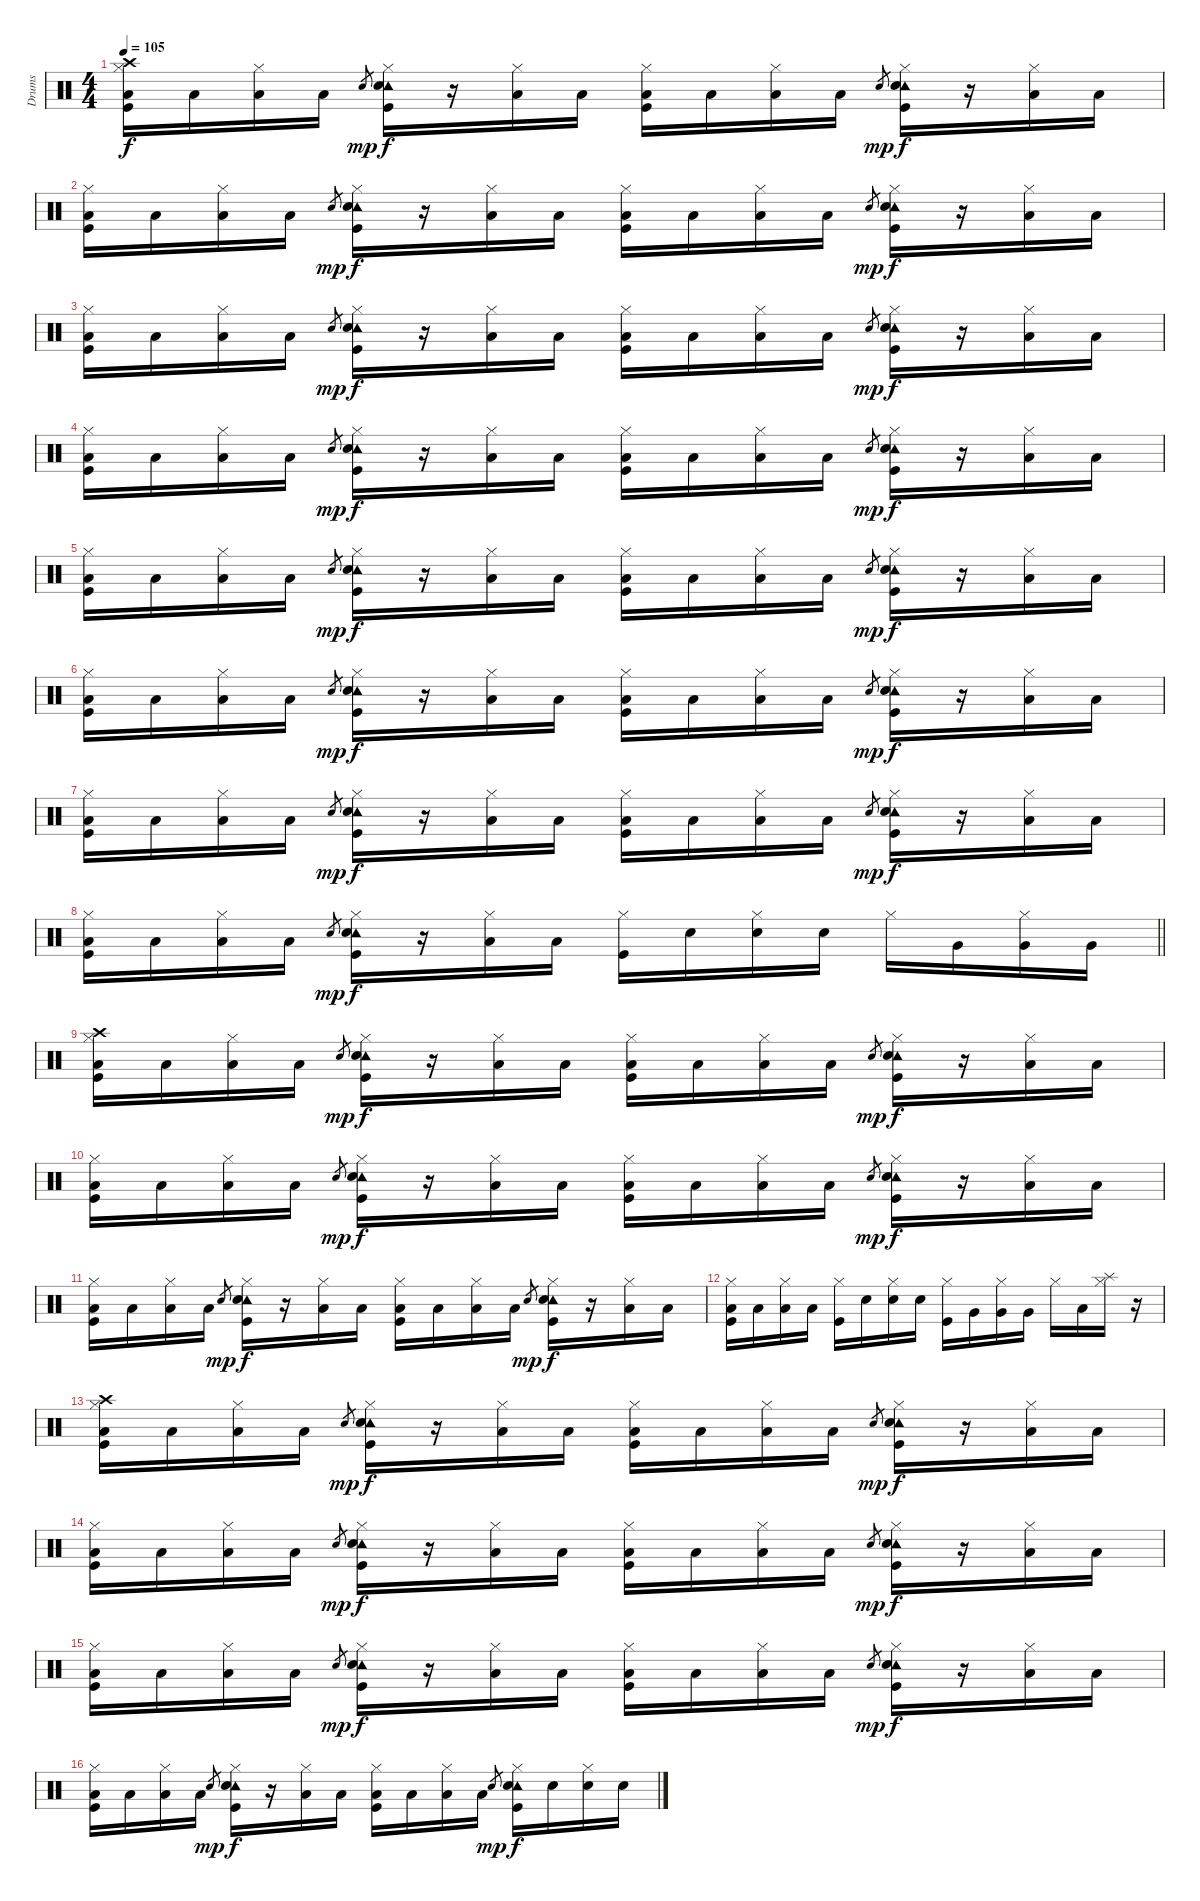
\track ("Drums" "Drums") {instrument percussion}
\staff {score}
\articulation defaults
\ts (4 4)
\tempo 105
\clef neutral
\ks c
("Crash high (hit)" "Hi-Hat (closed)" "Low Floor Tom (hit)" "Kick (hit)").16{dy f} "Low Floor Tom (hit)".16 ("Hi-Hat (closed)" "Low Floor Tom (hit)").16 "Low Floor Tom (hit)".16 "Snare (hit) 2".8{gr dy mp} ("Tambourine (hit)" "Hi-Hat (closed)" "Snare (hit) 2" "Kick (hit)").16{dy f} r.16 ("Hi-Hat (closed)" "Low Floor Tom (hit)").16 "Low Floor Tom (hit)".16 ("Hi-Hat (closed)" "Low Floor Tom (hit)" "Kick (hit)").16 "Low Floor Tom (hit)".16 ("Hi-Hat (closed)" "Low Floor Tom (hit)").16 "Low Floor Tom (hit)".16 "Snare (hit) 2".8{gr dy mp} ("Tambourine (hit)" "Hi-Hat (closed)" "Snare (hit) 2" "Kick (hit)").16{dy f} r.16 ("Hi-Hat (closed)" "Low Floor Tom (hit)").16 "Low Floor Tom (hit)".16 |
("Hi-Hat (closed)" "Low Floor Tom (hit)" "Kick (hit)").16 "Low Floor Tom (hit)".16 ("Hi-Hat (closed)" "Low Floor Tom (hit)").16 "Low Floor Tom (hit)".16 "Snare (hit) 2".8{gr dy mp} ("Tambourine (hit)" "Hi-Hat (closed)" "Snare (hit) 2" "Kick (hit)").16{dy f} r.16 ("Hi-Hat (closed)" "Low Floor Tom (hit)").16 "Low Floor Tom (hit)".16 ("Hi-Hat (closed)" "Low Floor Tom (hit)" "Kick (hit)").16 "Low Floor Tom (hit)".16 ("Hi-Hat (closed)" "Low Floor Tom (hit)").16 "Low Floor Tom (hit)".16 "Snare (hit) 2".8{gr dy mp} ("Tambourine (hit)" "Hi-Hat (closed)" "Snare (hit) 2" "Kick (hit)").16{dy f} r.16 ("Hi-Hat (closed)" "Low Floor Tom (hit)").16 "Low Floor Tom (hit)".16 |
("Hi-Hat (closed)" "Low Floor Tom (hit)" "Kick (hit)").16 "Low Floor Tom (hit)".16 ("Hi-Hat (closed)" "Low Floor Tom (hit)").16 "Low Floor Tom (hit)".16 "Snare (hit) 2".8{gr dy mp} ("Tambourine (hit)" "Hi-Hat (closed)" "Snare (hit) 2" "Kick (hit)").16{dy f} r.16 ("Hi-Hat (closed)" "Low Floor Tom (hit)").16 "Low Floor Tom (hit)".16 ("Hi-Hat (closed)" "Low Floor Tom (hit)" "Kick (hit)").16 "Low Floor Tom (hit)".16 ("Hi-Hat (closed)" "Low Floor Tom (hit)").16 "Low Floor Tom (hit)".16 "Snare (hit) 2".8{gr dy mp} ("Tambourine (hit)" "Hi-Hat (closed)" "Snare (hit) 2" "Kick (hit)").16{dy f} r.16 ("Hi-Hat (closed)" "Low Floor Tom (hit)").16 "Low Floor Tom (hit)".16 |
("Hi-Hat (closed)" "Low Floor Tom (hit)" "Kick (hit)").16 "Low Floor Tom (hit)".16 ("Hi-Hat (closed)" "Low Floor Tom (hit)").16 "Low Floor Tom (hit)".16 "Snare (hit) 2".8{gr dy mp} ("Tambourine (hit)" "Hi-Hat (closed)" "Snare (hit) 2" "Kick (hit)").16{dy f} r.16 ("Hi-Hat (closed)" "Low Floor Tom (hit)").16 "Low Floor Tom (hit)".16 ("Hi-Hat (closed)" "Low Floor Tom (hit)" "Kick (hit)").16 "Low Floor Tom (hit)".16 ("Hi-Hat (closed)" "Low Floor Tom (hit)").16 "Low Floor Tom (hit)".16 "Snare (hit) 2".8{gr dy mp} ("Tambourine (hit)" "Hi-Hat (closed)" "Snare (hit) 2" "Kick (hit)").16{dy f} r.16 ("Hi-Hat (closed)" "Low Floor Tom (hit)").16 "Low Floor Tom (hit)".16 |
("Hi-Hat (closed)" "Low Floor Tom (hit)" "Kick (hit)").16 "Low Floor Tom (hit)".16 ("Hi-Hat (closed)" "Low Floor Tom (hit)").16 "Low Floor Tom (hit)".16 "Snare (hit) 2".8{gr dy mp} ("Tambourine (hit)" "Hi-Hat (closed)" "Snare (hit) 2" "Kick (hit)").16{dy f} r.16 ("Hi-Hat (closed)" "Low Floor Tom (hit)").16 "Low Floor Tom (hit)".16 ("Hi-Hat (closed)" "Low Floor Tom (hit)" "Kick (hit)").16 "Low Floor Tom (hit)".16 ("Hi-Hat (closed)" "Low Floor Tom (hit)").16 "Low Floor Tom (hit)".16 "Snare (hit) 2".8{gr dy mp} ("Tambourine (hit)" "Hi-Hat (closed)" "Snare (hit) 2" "Kick (hit)").16{dy f} r.16 ("Hi-Hat (closed)" "Low Floor Tom (hit)").16 "Low Floor Tom (hit)".16 |
("Hi-Hat (closed)" "Low Floor Tom (hit)" "Kick (hit)").16 "Low Floor Tom (hit)".16 ("Hi-Hat (closed)" "Low Floor Tom (hit)").16 "Low Floor Tom (hit)".16 "Snare (hit) 2".8{gr dy mp} ("Tambourine (hit)" "Hi-Hat (closed)" "Snare (hit) 2" "Kick (hit)").16{dy f} r.16 ("Hi-Hat (closed)" "Low Floor Tom (hit)").16 "Low Floor Tom (hit)".16 ("Hi-Hat (closed)" "Low Floor Tom (hit)" "Kick (hit)").16 "Low Floor Tom (hit)".16 ("Hi-Hat (closed)" "Low Floor Tom (hit)").16 "Low Floor Tom (hit)".16 "Snare (hit) 2".8{gr dy mp} ("Tambourine (hit)" "Hi-Hat (closed)" "Snare (hit) 2" "Kick (hit)").16{dy f} r.16 ("Hi-Hat (closed)" "Low Floor Tom (hit)").16 "Low Floor Tom (hit)".16 |
("Hi-Hat (closed)" "Low Floor Tom (hit)" "Kick (hit)").16 "Low Floor Tom (hit)".16 ("Hi-Hat (closed)" "Low Floor Tom (hit)").16 "Low Floor Tom (hit)".16 "Snare (hit) 2".8{gr dy mp} ("Tambourine (hit)" "Hi-Hat (closed)" "Snare (hit) 2" "Kick (hit)").16{dy f} r.16 ("Hi-Hat (closed)" "Low Floor Tom (hit)").16 "Low Floor Tom (hit)".16 ("Hi-Hat (closed)" "Low Floor Tom (hit)" "Kick (hit)").16 "Low Floor Tom (hit)".16 ("Hi-Hat (closed)" "Low Floor Tom (hit)").16 "Low Floor Tom (hit)".16 "Snare (hit) 2".8{gr dy mp} ("Tambourine (hit)" "Hi-Hat (closed)" "Snare (hit) 2" "Kick (hit)").16{dy f} r.16 ("Hi-Hat (closed)" "Low Floor Tom (hit)").16 "Low Floor Tom (hit)".16 |
\barLineRight lightlight
("Hi-Hat (closed)" "Low Floor Tom (hit)" "Kick (hit)").16 "Low Floor Tom (hit)".16 ("Hi-Hat (closed)" "Low Floor Tom (hit)").16 "Low Floor Tom (hit)".16 "Snare (hit) 2".8{gr dy mp} ("Tambourine (hit)" "Hi-Hat (closed)" "Snare (hit) 2" "Kick (hit)").16{dy f} r.16 ("Hi-Hat (closed)" "Low Floor Tom (hit)").16 "Low Floor Tom (hit)".16 ("Hi-Hat (closed)" "Kick (hit)").16 "Snare (hit) 2".16 ("Hi-Hat (closed)" "Snare (hit) 2").16 "Snare (hit) 2".16 "Hi-Hat (closed)".16 "Very Low Tom (hit)".16 ("Hi-Hat (closed)" "Very Low Tom (hit)").16 "Very Low Tom (hit)".16 |
("Crash high (hit)" "Hi-Hat (closed)" "Low Floor Tom (hit)" "Kick (hit)").16 "Low Floor Tom (hit)".16 ("Hi-Hat (closed)" "Low Floor Tom (hit)").16 "Low Floor Tom (hit)".16 "Snare (hit) 2".8{gr dy mp} ("Tambourine (hit)" "Hi-Hat (closed)" "Snare (hit) 2" "Kick (hit)").16{dy f} r.16 ("Hi-Hat (closed)" "Low Floor Tom (hit)").16 "Low Floor Tom (hit)".16 ("Hi-Hat (closed)" "Low Floor Tom (hit)" "Kick (hit)").16 "Low Floor Tom (hit)".16 ("Hi-Hat (closed)" "Low Floor Tom (hit)").16 "Low Floor Tom (hit)".16 "Snare (hit) 2".8{gr dy mp} ("Tambourine (hit)" "Hi-Hat (closed)" "Snare (hit) 2" "Kick (hit)").16{dy f} r.16 ("Hi-Hat (closed)" "Low Floor Tom (hit)").16 "Low Floor Tom (hit)".16 |
("Hi-Hat (closed)" "Low Floor Tom (hit)" "Kick (hit)").16 "Low Floor Tom (hit)".16 ("Hi-Hat (closed)" "Low Floor Tom (hit)").16 "Low Floor Tom (hit)".16 "Snare (hit) 2".8{gr dy mp} ("Tambourine (hit)" "Hi-Hat (closed)" "Snare (hit) 2" "Kick (hit)").16{dy f} r.16 ("Hi-Hat (closed)" "Low Floor Tom (hit)").16 "Low Floor Tom (hit)".16 ("Hi-Hat (closed)" "Low Floor Tom (hit)" "Kick (hit)").16 "Low Floor Tom (hit)".16 ("Hi-Hat (closed)" "Low Floor Tom (hit)").16 "Low Floor Tom (hit)".16 "Snare (hit) 2".8{gr dy mp} ("Tambourine (hit)" "Hi-Hat (closed)" "Snare (hit) 2" "Kick (hit)").16{dy f} r.16 ("Hi-Hat (closed)" "Low Floor Tom (hit)").16 "Low Floor Tom (hit)".16 |
("Hi-Hat (closed)" "Low Floor Tom (hit)" "Kick (hit)").16 "Low Floor Tom (hit)".16 ("Hi-Hat (closed)" "Low Floor Tom (hit)").16 "Low Floor Tom (hit)".16 "Snare (hit) 2".8{gr dy mp} ("Tambourine (hit)" "Hi-Hat (closed)" "Snare (hit) 2" "Kick (hit)").16{dy f} r.16 ("Hi-Hat (closed)" "Low Floor Tom (hit)").16 "Low Floor Tom (hit)".16 ("Hi-Hat (closed)" "Low Floor Tom (hit)" "Kick (hit)").16 "Low Floor Tom (hit)".16 ("Hi-Hat (closed)" "Low Floor Tom (hit)").16 "Low Floor Tom (hit)".16 "Snare (hit) 2".8{gr dy mp} ("Tambourine (hit)" "Hi-Hat (closed)" "Snare (hit) 2" "Kick (hit)").16{dy f} r.16 ("Hi-Hat (closed)" "Low Floor Tom (hit)").16 "Low Floor Tom (hit)".16 |
("Hi-Hat (closed)" "Low Floor Tom (hit)" "Kick (hit)").16 "Low Floor Tom (hit)".16 ("Hi-Hat (closed)" "Low Floor Tom (hit)").16 "Low Floor Tom (hit)".16 ("Hi-Hat (closed)" "Kick (hit)").16 "Snare (hit) 2".16 ("Hi-Hat (closed)" "Snare (hit) 2").16 "Snare (hit) 2".16 ("Hi-Hat (closed)" "Kick (hit)").16 "Very Low Tom (hit)".16 ("Hi-Hat (closed)" "Very Low Tom (hit)").16 "Very Low Tom (hit)".16 "Hi-Hat (closed)".16 "Low Floor Tom (hit)".16 ("Hi-Hat (closed)" "Splash (hit)").16 r.16 |
("Crash high (hit)" "Hi-Hat (closed)" "Low Floor Tom (hit)" "Kick (hit)").16 "Low Floor Tom (hit)".16 ("Hi-Hat (closed)" "Low Floor Tom (hit)").16 "Low Floor Tom (hit)".16 "Snare (hit) 2".8{gr dy mp} ("Tambourine (hit)" "Hi-Hat (closed)" "Snare (hit) 2" "Kick (hit)").16{dy f} r.16 ("Hi-Hat (closed)" "Low Floor Tom (hit)").16 "Low Floor Tom (hit)".16 ("Hi-Hat (closed)" "Low Floor Tom (hit)" "Kick (hit)").16 "Low Floor Tom (hit)".16 ("Hi-Hat (closed)" "Low Floor Tom (hit)").16 "Low Floor Tom (hit)".16 "Snare (hit) 2".8{gr dy mp} ("Tambourine (hit)" "Hi-Hat (closed)" "Snare (hit) 2" "Kick (hit)").16{dy f} r.16 ("Hi-Hat (closed)" "Low Floor Tom (hit)").16 "Low Floor Tom (hit)".16 |
("Hi-Hat (closed)" "Low Floor Tom (hit)" "Kick (hit)").16 "Low Floor Tom (hit)".16 ("Hi-Hat (closed)" "Low Floor Tom (hit)").16 "Low Floor Tom (hit)".16 "Snare (hit) 2".8{gr dy mp} ("Tambourine (hit)" "Hi-Hat (closed)" "Snare (hit) 2" "Kick (hit)").16{dy f} r.16 ("Hi-Hat (closed)" "Low Floor Tom (hit)").16 "Low Floor Tom (hit)".16 ("Hi-Hat (closed)" "Low Floor Tom (hit)" "Kick (hit)").16 "Low Floor Tom (hit)".16 ("Hi-Hat (closed)" "Low Floor Tom (hit)").16 "Low Floor Tom (hit)".16 "Snare (hit) 2".8{gr dy mp} ("Tambourine (hit)" "Hi-Hat (closed)" "Snare (hit) 2" "Kick (hit)").16{dy f} r.16 ("Hi-Hat (closed)" "Low Floor Tom (hit)").16 "Low Floor Tom (hit)".16 |
("Hi-Hat (closed)" "Low Floor Tom (hit)" "Kick (hit)").16 "Low Floor Tom (hit)".16 ("Hi-Hat (closed)" "Low Floor Tom (hit)").16 "Low Floor Tom (hit)".16 "Snare (hit) 2".8{gr dy mp} ("Tambourine (hit)" "Hi-Hat (closed)" "Snare (hit) 2" "Kick (hit)").16{dy f} r.16 ("Hi-Hat (closed)" "Low Floor Tom (hit)").16 "Low Floor Tom (hit)".16 ("Hi-Hat (closed)" "Low Floor Tom (hit)" "Kick (hit)").16 "Low Floor Tom (hit)".16 ("Hi-Hat (closed)" "Low Floor Tom (hit)").16 "Low Floor Tom (hit)".16 "Snare (hit) 2".8{gr dy mp} ("Tambourine (hit)" "Hi-Hat (closed)" "Snare (hit) 2" "Kick (hit)").16{dy f} r.16 ("Hi-Hat (closed)" "Low Floor Tom (hit)").16 "Low Floor Tom (hit)".16 |
("Hi-Hat (closed)" "Low Floor Tom (hit)" "Kick (hit)").16 "Low Floor Tom (hit)".16 ("Hi-Hat (closed)" "Low Floor Tom (hit)").16 "Low Floor Tom (hit)".16 "Snare (hit) 2".8{gr dy mp} ("Tambourine (hit)" "Hi-Hat (closed)" "Snare (hit) 2" "Kick (hit)").16{dy f} r.16 ("Hi-Hat (closed)" "Low Floor Tom (hit)").16 "Low Floor Tom (hit)".16 ("Hi-Hat (closed)" "Low Floor Tom (hit)" "Kick (hit)").16 "Low Floor Tom (hit)".16 ("Hi-Hat (closed)" "Low Floor Tom (hit)").16 "Low Floor Tom (hit)".16 "Snare (hit) 2".8{gr dy mp} ("Tambourine (hit)" "Hi-Hat (closed)" "Snare (hit) 2" "Kick (hit)").16{dy f} "Snare (hit) 2".16 ("Hi-Hat (closed)" "Snare (hit) 2").16 "Snare (hit) 2".16
